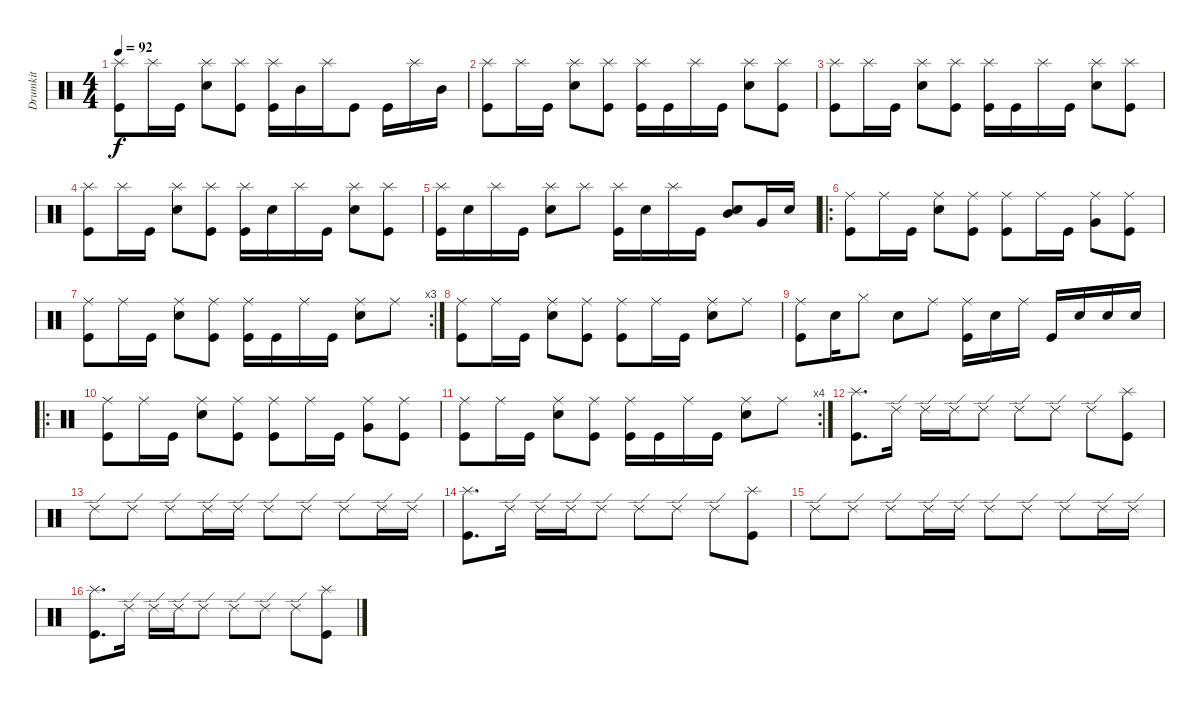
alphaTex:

\track ("Drumkit" "Drumkit") {instrument percussion}
\staff {score}
\articulation defaults
\ts (4 4)
\tempo 92
\clef neutral
\ks c
("Splash (hit)" "Kick (hit)").8{dy f} "Splash (hit)".16 "Kick (hit)".16 ("Snare (hit) 2" "Splash (hit)").8 ("Kick (hit)" "Splash (hit)").8 ("Kick (hit)" "Splash (hit)").16 "Mid Tom (hit)".16 "Splash (hit)".16 "Kick (hit)".8 "Kick (hit)".16 "Splash (hit)".16 "Mid Tom (hit)".16 |
("Splash (hit)" "Kick (hit)").8 "Splash (hit)".16 "Kick (hit)".16 ("Snare (hit) 2" "Splash (hit)").8 ("Kick (hit)" "Splash (hit)").8 ("Kick (hit)" "Splash (hit)").16 "Kick (hit)".16 "Splash (hit)".16 "Kick (hit)".16 ("Snare (hit) 2" "Splash (hit)").8 ("Kick (hit)" "Splash (hit)").8 |
("Splash (hit)" "Kick (hit)").8 "Splash (hit)".16 "Kick (hit)".16 ("Snare (hit) 2" "Splash (hit)").8 ("Kick (hit)" "Splash (hit)").8 ("Kick (hit)" "Splash (hit)").16 "Kick (hit)".16 "Splash (hit)".16 "Kick (hit)".16 ("Snare (hit) 2" "Splash (hit)").8 ("Kick (hit)" "Splash (hit)").8 |
("Splash (hit)" "Kick (hit)").8 "Splash (hit)".16 "Kick (hit)".16 ("Snare (hit) 2" "Splash (hit)").8 ("Kick (hit)" "Splash (hit)").8 ("Kick (hit)" "Splash (hit)").16 "Snare (hit) 2".16 "Splash (hit)".16 "Kick (hit)".16 ("Snare (hit) 2" "Splash (hit)").8 ("Kick (hit)" "Splash (hit)").8 |
("Kick (hit)" "Splash (hit)").16 "Snare (hit) 2".16 "Splash (hit)".16 "Kick (hit)".16 ("Snare (hit) 2" "Splash (hit)").8 "Splash (hit)".8 ("Kick (hit)" "Splash (hit)").16 "Snare (hit) 2".16 "Splash (hit)".16 "Kick (hit)".16 ("Mid Tom (hit)" "Snare (hit) 2").8 "Very Low Tom (hit)".16 "Snare (hit) 2".16 |
\ro
("Ride (middle)" "Kick (hit)").8 "Ride (middle)".16 "Kick (hit)".16 ("Ride (middle)" "Snare (hit) 2").8 ("Ride (middle)" "Kick (hit)").8 ("Ride (middle)" "Kick (hit)").8 "Ride (middle)".16 "Kick (hit)".16 ("Ride (middle)" "Very Low Tom (hit)").8 ("Ride (middle)" "Kick (hit)").8 |
\rc 3
("Ride (middle)" "Kick (hit)").8 "Ride (middle)".16 "Kick (hit)".16 ("Ride (middle)" "Snare (hit) 2").8 ("Ride (middle)" "Kick (hit)").8 ("Ride (middle)" "Kick (hit)").16 "Kick (hit)".16 "Ride (middle)".16 "Kick (hit)".16 ("Ride (middle)" "Snare (hit) 2").8 "Ride (middle)".8 |
("Ride (middle)" "Kick (hit)").8 "Ride (middle)".16 "Kick (hit)".16 ("Ride (middle)" "Snare (hit) 2").8 ("Ride (middle)" "Kick (hit)").8 ("Kick (hit)" "Ride (middle)").8 "Ride (middle)".16 "Kick (hit)".16 ("Ride (middle)" "Snare (hit) 2").8 "Ride (middle)".8 |
("Ride (middle)" "Kick (hit)").8 "Snare (hit) 2".16 "Hi-Hat (closed)".8 "Snare (hit) 2".8 "Ride (middle)".8 ("Ride (middle)" "Kick (hit)").16 "Snare (hit) 2".16 "Ride (middle)".16 "Kick (hit)".16 "Snare (hit) 2".16 "Snare (hit) 2".16 "Snare (hit) 2".16 |
\ro
("Ride (middle)" "Kick (hit)").8 "Ride (middle)".16 "Kick (hit)".16 ("Ride (middle)" "Snare (hit) 2").8 ("Ride (middle)" "Kick (hit)").8 ("Ride (middle)" "Kick (hit)").8 "Ride (middle)".16 "Kick (hit)".16 ("Ride (middle)" "Very Low Tom (hit)").8 ("Ride (middle)" "Kick (hit)").8 |
\rc 4
("Ride (middle)" "Kick (hit)").8 "Ride (middle)".16 "Kick (hit)".16 ("Ride (middle)" "Snare (hit) 2").8 ("Ride (middle)" "Kick (hit)").8 ("Ride (middle)" "Kick (hit)").16 "Kick (hit)".16 "Ride (middle)".16 "Kick (hit)".16 ("Ride (middle)" "Snare (hit) 2").8 "Ride (middle)".8 |
("Kick (hit)" "Splash (hit)").8{d} "Ride (edge) 2".16 "Ride (edge) 2".16 "Ride (edge) 2".16 "Ride (edge) 2".8 "Ride (edge) 2".8 "Ride (edge) 2".8 "Ride (edge) 2".8 ("Splash (hit)" "Kick (hit)").8 |
"Ride (edge) 2".8 "Ride (edge) 2".8 "Ride (edge) 2".8 "Ride (edge) 2".16 "Ride (edge) 2".16 "Ride (edge) 2".8 "Ride (edge) 2".8 "Ride (edge) 2".8 "Ride (edge) 2".16 "Ride (edge) 2".16 |
("Kick (hit)" "Splash (hit)").8{d} "Ride (edge) 2".16 "Ride (edge) 2".16 "Ride (edge) 2".16 "Ride (edge) 2".8 "Ride (edge) 2".8 "Ride (edge) 2".8 "Ride (edge) 2".8 ("Splash (hit)" "Kick (hit)").8 |
"Ride (edge) 2".8 "Ride (edge) 2".8 "Ride (edge) 2".8 "Ride (edge) 2".16 "Ride (edge) 2".16 "Ride (edge) 2".8 "Ride (edge) 2".8 "Ride (edge) 2".8 "Ride (edge) 2".16 "Ride (edge) 2".16 |
("Kick (hit)" "Splash (hit)").8{d} "Ride (edge) 2".16 "Ride (edge) 2".16 "Ride (edge) 2".16 "Ride (edge) 2".8 "Ride (edge) 2".8 "Ride (edge) 2".8 "Ride (edge) 2".8 ("Splash (hit)" "Kick (hit)").8
